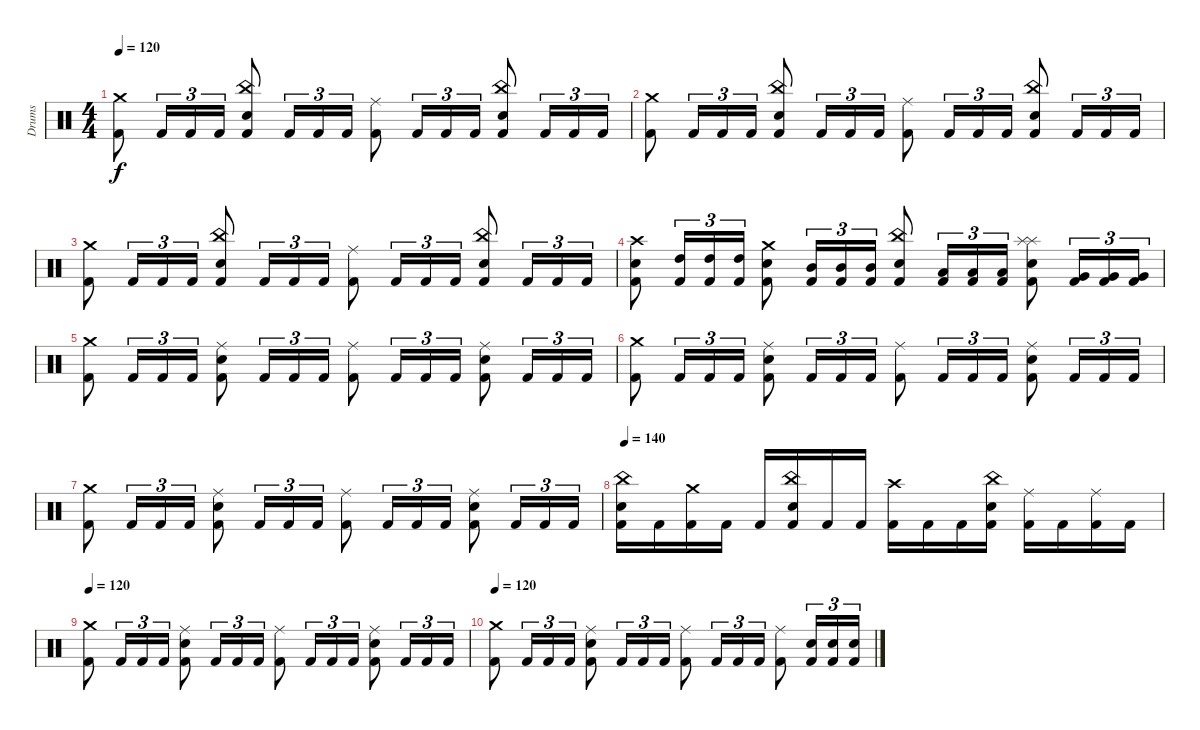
\track ("Drums" "Drums") {instrument percussion}
\staff {score}
\articulation defaults
\ts (4 4)
\tempo 120
\clef neutral
\ks c
("Crash medium (hit)" "Kick (hit) 2").8{dy f} "Kick (hit) 2".16{tu (3 2)} "Kick (hit) 2".16{tu (3 2)} "Kick (hit) 2".16{tu (3 2)} ("China (hit)" "Snare (hit) 2" "Kick (hit) 2").8 "Kick (hit) 2".16{tu (3 2)} "Kick (hit) 2".16{tu (3 2)} "Kick (hit) 2".16{tu (3 2)} ("Ride (middle)" "Kick (hit) 2").8 "Kick (hit) 2".16{tu (3 2)} "Kick (hit) 2".16{tu (3 2)} "Kick (hit) 2".16{tu (3 2)} ("China (hit)" "Snare (hit) 2" "Kick (hit) 2").8 "Kick (hit) 2".16{tu (3 2)} "Kick (hit) 2".16{tu (3 2)} "Kick (hit) 2".16{tu (3 2)} |
("Crash medium (hit)" "Kick (hit) 2").8 "Kick (hit) 2".16{tu (3 2)} "Kick (hit) 2".16{tu (3 2)} "Kick (hit) 2".16{tu (3 2)} ("China (hit)" "Snare (hit) 2" "Kick (hit) 2").8 "Kick (hit) 2".16{tu (3 2)} "Kick (hit) 2".16{tu (3 2)} "Kick (hit) 2".16{tu (3 2)} ("Ride (middle)" "Kick (hit) 2").8 "Kick (hit) 2".16{tu (3 2)} "Kick (hit) 2".16{tu (3 2)} "Kick (hit) 2".16{tu (3 2)} ("China (hit)" "Snare (hit) 2" "Kick (hit) 2").8 "Kick (hit) 2".16{tu (3 2)} "Kick (hit) 2".16{tu (3 2)} "Kick (hit) 2".16{tu (3 2)} |
("Crash medium (hit)" "Kick (hit) 2").8 "Kick (hit) 2".16{tu (3 2)} "Kick (hit) 2".16{tu (3 2)} "Kick (hit) 2".16{tu (3 2)} ("China (hit)" "Snare (hit) 2" "Kick (hit) 2").8 "Kick (hit) 2".16{tu (3 2)} "Kick (hit) 2".16{tu (3 2)} "Kick (hit) 2".16{tu (3 2)} ("Ride (middle)" "Kick (hit) 2").8 "Kick (hit) 2".16{tu (3 2)} "Kick (hit) 2".16{tu (3 2)} "Kick (hit) 2".16{tu (3 2)} ("China (hit)" "Snare (hit) 2" "Kick (hit) 2").8 "Kick (hit) 2".16{tu (3 2)} "Kick (hit) 2".16{tu (3 2)} "Kick (hit) 2".16{tu (3 2)} |
("Crash high (hit)" "Snare (hit) 2" "Kick (hit) 2").8 ("High Tom (hit)" "Kick (hit) 2").16{tu (3 2)} ("High Tom (hit)" "Kick (hit) 2").16{tu (3 2)} ("High Tom (hit)" "Kick (hit) 2").16{tu (3 2)} ("Crash medium (hit)" "Snare (hit) 2" "Kick (hit) 2").8 ("Mid Tom (hit)" "Kick (hit) 2").16{tu (3 2)} ("Mid Tom (hit)" "Kick (hit) 2").16{tu (3 2)} ("Mid Tom (hit)" "Kick (hit) 2").16{tu (3 2)} ("China (hit)" "Snare (hit) 2" "Kick (hit) 2").8 ("Low Tom (hit)" "Kick (hit) 2").16{tu (3 2)} ("Low Tom (hit)" "Kick (hit) 2").16{tu (3 2)} ("Low Tom (hit)" "Kick (hit) 2").16{tu (3 2)} ("Splash (hit)" "Splash (hit)" "Snare (hit) 2" "Kick (hit) 2").8 ("Very Low Tom (hit)" "Kick (hit) 2").16{tu (3 2)} ("Very Low Tom (hit)" "Kick (hit) 2").16{tu (3 2)} ("Very Low Tom (hit)" "Kick (hit) 2").16{tu (3 2)} |
("Crash medium (hit)" "Kick (hit) 2").8 "Kick (hit) 2".16{tu (3 2)} "Kick (hit) 2".16{tu (3 2)} "Kick (hit) 2".16{tu (3 2)} ("Ride (middle)" "Snare (hit) 2" "Kick (hit) 2").8 "Kick (hit) 2".16{tu (3 2)} "Kick (hit) 2".16{tu (3 2)} "Kick (hit) 2".16{tu (3 2)} ("Ride (middle)" "Kick (hit) 2").8 "Kick (hit) 2".16{tu (3 2)} "Kick (hit) 2".16{tu (3 2)} "Kick (hit) 2".16{tu (3 2)} ("Ride (middle)" "Snare (hit) 2" "Kick (hit) 2").8 "Kick (hit) 2".16{tu (3 2)} "Kick (hit) 2".16{tu (3 2)} "Kick (hit) 2".16{tu (3 2)} |
("Crash medium (hit)" "Kick (hit) 2").8 "Kick (hit) 2".16{tu (3 2)} "Kick (hit) 2".16{tu (3 2)} "Kick (hit) 2".16{tu (3 2)} ("Ride (middle)" "Snare (hit) 2" "Kick (hit) 2").8 "Kick (hit) 2".16{tu (3 2)} "Kick (hit) 2".16{tu (3 2)} "Kick (hit) 2".16{tu (3 2)} ("Ride (middle)" "Kick (hit) 2").8 "Kick (hit) 2".16{tu (3 2)} "Kick (hit) 2".16{tu (3 2)} "Kick (hit) 2".16{tu (3 2)} ("Ride (middle)" "Snare (hit) 2" "Kick (hit) 2").8 "Kick (hit) 2".16{tu (3 2)} "Kick (hit) 2".16{tu (3 2)} "Kick (hit) 2".16{tu (3 2)} |
("Crash medium (hit)" "Kick (hit) 2").8 "Kick (hit) 2".16{tu (3 2)} "Kick (hit) 2".16{tu (3 2)} "Kick (hit) 2".16{tu (3 2)} ("Ride (middle)" "Snare (hit) 2" "Kick (hit) 2").8 "Kick (hit) 2".16{tu (3 2)} "Kick (hit) 2".16{tu (3 2)} "Kick (hit) 2".16{tu (3 2)} ("Ride (middle)" "Kick (hit) 2").8 "Kick (hit) 2".16{tu (3 2)} "Kick (hit) 2".16{tu (3 2)} "Kick (hit) 2".16{tu (3 2)} ("Ride (middle)" "Snare (hit) 2" "Kick (hit) 2").8 "Kick (hit) 2".16{tu (3 2)} "Kick (hit) 2".16{tu (3 2)} "Kick (hit) 2".16{tu (3 2)} |
\tempo 140
("China (hit)" "Snare (hit) 2" "Kick (hit) 2").16 "Kick (hit) 2".16 ("Crash medium (hit)" "Kick (hit) 2").16 "Kick (hit) 2".16 "Kick (hit) 2".16 ("China (hit)" "Snare (hit) 2" "Kick (hit) 2").16 "Kick (hit) 2".16 "Kick (hit) 2".16 ("Crash high (hit)" "Kick (hit) 2").16 "Kick (hit) 2".16 "Kick (hit) 2".16 ("China (hit)" "Snare (hit) 2" "Kick (hit) 2").16 ("Ride (middle)" "Kick (hit) 2").16 "Kick (hit) 2".16 ("Ride (middle)" "Kick (hit) 2").16 "Kick (hit) 2".16 |
\tempo 120
("Crash medium (hit)" "Kick (hit) 2").8 "Kick (hit) 2".16{tu (3 2)} "Kick (hit) 2".16{tu (3 2)} "Kick (hit) 2".16{tu (3 2)} ("Ride (middle)" "Snare (hit) 2" "Kick (hit) 2").8 "Kick (hit) 2".16{tu (3 2)} "Kick (hit) 2".16{tu (3 2)} "Kick (hit) 2".16{tu (3 2)} ("Ride (middle)" "Kick (hit) 2").8 "Kick (hit) 2".16{tu (3 2)} "Kick (hit) 2".16{tu (3 2)} "Kick (hit) 2".16{tu (3 2)} ("Ride (middle)" "Snare (hit) 2" "Kick (hit) 2").8 "Kick (hit) 2".16{tu (3 2)} "Kick (hit) 2".16{tu (3 2)} "Kick (hit) 2".16{tu (3 2)} |
\tempo 120
("Crash medium (hit)" "Kick (hit) 2").8 "Kick (hit) 2".16{tu (3 2)} "Kick (hit) 2".16{tu (3 2)} "Kick (hit) 2".16{tu (3 2)} ("Ride (middle)" "Snare (hit) 2" "Kick (hit) 2").8 "Kick (hit) 2".16{tu (3 2)} "Kick (hit) 2".16{tu (3 2)} "Kick (hit) 2".16{tu (3 2)} ("Ride (middle)" "Kick (hit) 2").8 "Kick (hit) 2".16{tu (3 2)} "Kick (hit) 2".16{tu (3 2)} "Kick (hit) 2".16{tu (3 2)} ("Ride (middle)" "Kick (hit) 2").8 ("Snare (hit) 2" "Kick (hit) 2").16{tu (3 2)} ("Snare (hit) 2" "Kick (hit) 2").16{tu (3 2)} ("Snare (hit) 2" "Kick (hit) 2").16{tu (3 2)}
